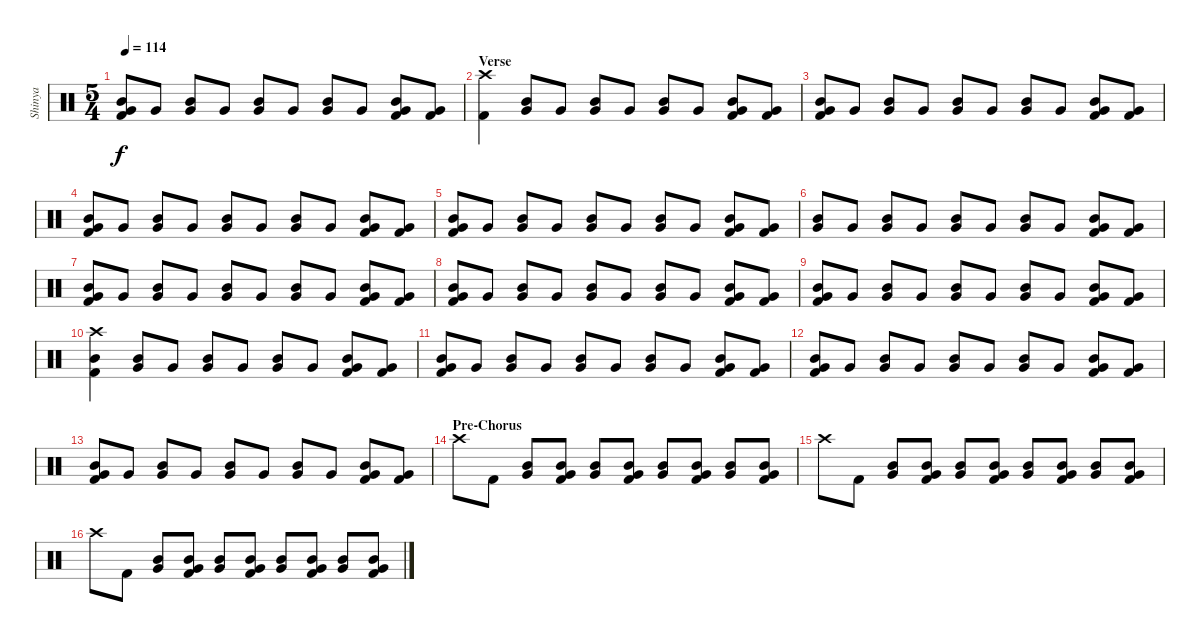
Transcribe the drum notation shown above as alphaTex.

\track ("Shinya" "Shinya") {instrument percussion}
\staff {score}
\articulation defaults
\ts (5 4)
\tempo 114
\clef neutral
\ks c
("Mid Tom (hit)" "Very Low Tom (hit)" "Kick (hit) 2").8{dy f} "Very Low Tom (hit)".8 ("Mid Tom (hit)" "Very Low Tom (hit)").8 "Very Low Tom (hit)".8 ("Mid Tom (hit)" "Very Low Tom (hit)").8 "Very Low Tom (hit)".8 ("Mid Tom (hit)" "Very Low Tom (hit)").8 "Very Low Tom (hit)".8 ("Mid Tom (hit)" "Very Low Tom (hit)" "Kick (hit) 2").8 ("Very Low Tom (hit)" "Kick (hit) 2").8 |
\section ("" "Verse")
("Crash high (hit)" "Kick (hit) 2").4 ("Mid Tom (hit)" "Very Low Tom (hit)").8 "Very Low Tom (hit)".8 ("Mid Tom (hit)" "Very Low Tom (hit)").8 "Very Low Tom (hit)".8 ("Mid Tom (hit)" "Very Low Tom (hit)").8 "Very Low Tom (hit)".8 ("Mid Tom (hit)" "Very Low Tom (hit)" "Kick (hit) 2").8 ("Very Low Tom (hit)" "Kick (hit) 2").8 |
("Mid Tom (hit)" "Very Low Tom (hit)" "Kick (hit) 2").8 "Very Low Tom (hit)".8 ("Mid Tom (hit)" "Very Low Tom (hit)").8 "Very Low Tom (hit)".8 ("Mid Tom (hit)" "Very Low Tom (hit)").8 "Very Low Tom (hit)".8 ("Mid Tom (hit)" "Very Low Tom (hit)").8 "Very Low Tom (hit)".8 ("Mid Tom (hit)" "Very Low Tom (hit)" "Kick (hit) 2").8 ("Very Low Tom (hit)" "Kick (hit) 2").8 |
("Mid Tom (hit)" "Very Low Tom (hit)" "Kick (hit) 2").8 "Very Low Tom (hit)".8 ("Mid Tom (hit)" "Very Low Tom (hit)").8 "Very Low Tom (hit)".8 ("Mid Tom (hit)" "Very Low Tom (hit)").8 "Very Low Tom (hit)".8 ("Mid Tom (hit)" "Very Low Tom (hit)").8 "Very Low Tom (hit)".8 ("Mid Tom (hit)" "Very Low Tom (hit)" "Kick (hit) 2").8 ("Very Low Tom (hit)" "Kick (hit) 2").8 |
("Mid Tom (hit)" "Very Low Tom (hit)" "Kick (hit) 2").8 "Very Low Tom (hit)".8 ("Mid Tom (hit)" "Very Low Tom (hit)").8 "Very Low Tom (hit)".8 ("Mid Tom (hit)" "Very Low Tom (hit)").8 "Very Low Tom (hit)".8 ("Mid Tom (hit)" "Very Low Tom (hit)").8 "Very Low Tom (hit)".8 ("Mid Tom (hit)" "Very Low Tom (hit)" "Kick (hit) 2").8 ("Very Low Tom (hit)" "Kick (hit) 2").8 |
("Mid Tom (hit)" "Very Low Tom (hit)").8 "Very Low Tom (hit)".8 ("Mid Tom (hit)" "Very Low Tom (hit)").8 "Very Low Tom (hit)".8 ("Mid Tom (hit)" "Very Low Tom (hit)").8 "Very Low Tom (hit)".8 ("Mid Tom (hit)" "Very Low Tom (hit)").8 "Very Low Tom (hit)".8 ("Mid Tom (hit)" "Very Low Tom (hit)" "Kick (hit) 2").8 ("Very Low Tom (hit)" "Kick (hit) 2").8 |
("Mid Tom (hit)" "Very Low Tom (hit)" "Kick (hit) 2").8 "Very Low Tom (hit)".8 ("Mid Tom (hit)" "Very Low Tom (hit)").8 "Very Low Tom (hit)".8 ("Mid Tom (hit)" "Very Low Tom (hit)").8 "Very Low Tom (hit)".8 ("Mid Tom (hit)" "Very Low Tom (hit)").8 "Very Low Tom (hit)".8 ("Mid Tom (hit)" "Very Low Tom (hit)" "Kick (hit) 2").8 ("Very Low Tom (hit)" "Kick (hit) 2").8 |
("Mid Tom (hit)" "Very Low Tom (hit)" "Kick (hit) 2").8 "Very Low Tom (hit)".8 ("Mid Tom (hit)" "Very Low Tom (hit)").8 "Very Low Tom (hit)".8 ("Mid Tom (hit)" "Very Low Tom (hit)").8 "Very Low Tom (hit)".8 ("Mid Tom (hit)" "Very Low Tom (hit)").8 "Very Low Tom (hit)".8 ("Mid Tom (hit)" "Very Low Tom (hit)" "Kick (hit) 2").8 ("Very Low Tom (hit)" "Kick (hit) 2").8 |
("Mid Tom (hit)" "Very Low Tom (hit)" "Kick (hit) 2").8 "Very Low Tom (hit)".8 ("Mid Tom (hit)" "Very Low Tom (hit)").8 "Very Low Tom (hit)".8 ("Mid Tom (hit)" "Very Low Tom (hit)").8 "Very Low Tom (hit)".8 ("Mid Tom (hit)" "Very Low Tom (hit)").8 "Very Low Tom (hit)".8 ("Mid Tom (hit)" "Very Low Tom (hit)" "Kick (hit) 2").8 ("Very Low Tom (hit)" "Kick (hit) 2").8 |
("Crash high (hit)" "Kick (hit) 2" "Mid Tom (hit)").4 ("Mid Tom (hit)" "Very Low Tom (hit)").8 "Very Low Tom (hit)".8 ("Mid Tom (hit)" "Very Low Tom (hit)").8 "Very Low Tom (hit)".8 ("Mid Tom (hit)" "Very Low Tom (hit)").8 "Very Low Tom (hit)".8 ("Mid Tom (hit)" "Very Low Tom (hit)" "Kick (hit) 2").8 ("Very Low Tom (hit)" "Kick (hit) 2").8 |
("Mid Tom (hit)" "Very Low Tom (hit)" "Kick (hit) 2").8 "Very Low Tom (hit)".8 ("Mid Tom (hit)" "Very Low Tom (hit)").8 "Very Low Tom (hit)".8 ("Mid Tom (hit)" "Very Low Tom (hit)").8 "Very Low Tom (hit)".8 ("Mid Tom (hit)" "Very Low Tom (hit)").8 "Very Low Tom (hit)".8 ("Mid Tom (hit)" "Very Low Tom (hit)" "Kick (hit) 2").8 ("Very Low Tom (hit)" "Kick (hit) 2").8 |
("Mid Tom (hit)" "Very Low Tom (hit)" "Kick (hit) 2").8 "Very Low Tom (hit)".8 ("Mid Tom (hit)" "Very Low Tom (hit)").8 "Very Low Tom (hit)".8 ("Mid Tom (hit)" "Very Low Tom (hit)").8 "Very Low Tom (hit)".8 ("Mid Tom (hit)" "Very Low Tom (hit)").8 "Very Low Tom (hit)".8 ("Mid Tom (hit)" "Very Low Tom (hit)" "Kick (hit) 2").8 ("Very Low Tom (hit)" "Kick (hit) 2").8 |
("Mid Tom (hit)" "Very Low Tom (hit)" "Kick (hit) 2").8 "Very Low Tom (hit)".8 ("Mid Tom (hit)" "Very Low Tom (hit)").8 "Very Low Tom (hit)".8 ("Mid Tom (hit)" "Very Low Tom (hit)").8 "Very Low Tom (hit)".8 ("Mid Tom (hit)" "Very Low Tom (hit)").8 "Very Low Tom (hit)".8 ("Mid Tom (hit)" "Very Low Tom (hit)" "Kick (hit) 2").8 ("Very Low Tom (hit)" "Kick (hit) 2").8 |
\section ("" "Pre-Chorus")
"Crash high (hit)".8 "Kick (hit) 2".8 ("Mid Tom (hit)" "Very Low Tom (hit)").8 ("Very Low Tom (hit)" "Kick (hit) 2" "Mid Tom (hit)").8 ("Mid Tom (hit)" "Very Low Tom (hit)").8 ("Very Low Tom (hit)" "Kick (hit) 2" "Mid Tom (hit)").8 ("Mid Tom (hit)" "Very Low Tom (hit)").8 ("Very Low Tom (hit)" "Kick (hit) 2" "Mid Tom (hit)").8 ("Mid Tom (hit)" "Very Low Tom (hit)").8 ("Very Low Tom (hit)" "Kick (hit) 2" "Mid Tom (hit)").8 |
"Crash high (hit)".8 "Kick (hit) 2".8 ("Mid Tom (hit)" "Very Low Tom (hit)").8 ("Very Low Tom (hit)" "Kick (hit) 2" "Mid Tom (hit)").8 ("Mid Tom (hit)" "Very Low Tom (hit)").8 ("Very Low Tom (hit)" "Kick (hit) 2" "Mid Tom (hit)").8 ("Mid Tom (hit)" "Very Low Tom (hit)").8 ("Very Low Tom (hit)" "Kick (hit) 2" "Mid Tom (hit)").8 ("Mid Tom (hit)" "Very Low Tom (hit)").8 ("Very Low Tom (hit)" "Kick (hit) 2" "Mid Tom (hit)").8 |
"Crash high (hit)".8 "Kick (hit) 2".8 ("Mid Tom (hit)" "Very Low Tom (hit)").8 ("Very Low Tom (hit)" "Kick (hit) 2" "Mid Tom (hit)").8 ("Mid Tom (hit)" "Very Low Tom (hit)").8 ("Very Low Tom (hit)" "Kick (hit) 2" "Mid Tom (hit)").8 ("Mid Tom (hit)" "Very Low Tom (hit)").8 ("Very Low Tom (hit)" "Kick (hit) 2" "Mid Tom (hit)").8 ("Mid Tom (hit)" "Very Low Tom (hit)").8 ("Very Low Tom (hit)" "Kick (hit) 2" "Mid Tom (hit)").8
